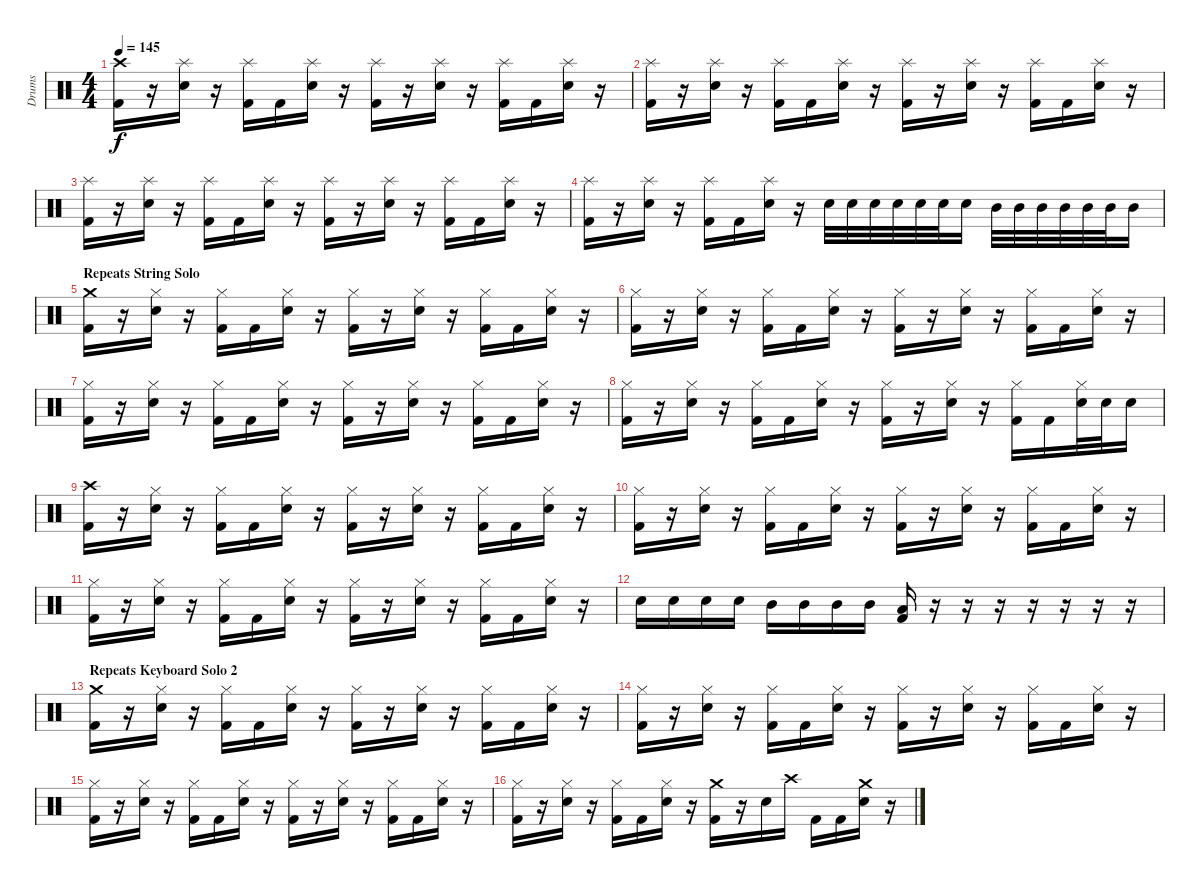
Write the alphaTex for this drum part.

\track ("Drums" "Drums") {instrument percussion}
\staff {score}
\articulation defaults
\ts (4 4)
\tempo 145
\clef neutral
\ks c
("Crash high (hit)" "Kick (hit) 2").16{dy f} r.16 ("Splash (hit)" "Snare (hit) 2").16 r.16 ("Splash (hit)" "Kick (hit) 2").16 "Kick (hit) 2".16 ("Splash (hit)" "Snare (hit) 2").16 r.16 ("Splash (hit)" "Kick (hit) 2").16 r.16 ("Splash (hit)" "Snare (hit) 2").16 r.16 ("Splash (hit)" "Kick (hit) 2").16 "Kick (hit) 2".16 ("Splash (hit)" "Snare (hit) 2").16 r.16 |
("Splash (hit)" "Kick (hit) 2").16 r.16 ("Splash (hit)" "Snare (hit) 2").16 r.16 ("Splash (hit)" "Kick (hit) 2").16 "Kick (hit) 2".16 ("Splash (hit)" "Snare (hit) 2").16 r.16 ("Splash (hit)" "Kick (hit) 2").16 r.16 ("Splash (hit)" "Snare (hit) 2").16 r.16 ("Splash (hit)" "Kick (hit) 2").16 "Kick (hit) 2".16 ("Splash (hit)" "Snare (hit) 2").16 r.16 |
("Splash (hit)" "Kick (hit) 2").16 r.16 ("Splash (hit)" "Snare (hit) 2").16 r.16 ("Splash (hit)" "Kick (hit) 2").16 "Kick (hit) 2".16 ("Splash (hit)" "Snare (hit) 2").16 r.16 ("Splash (hit)" "Kick (hit) 2").16 r.16 ("Splash (hit)" "Snare (hit) 2").16 r.16 ("Splash (hit)" "Kick (hit) 2").16 "Kick (hit) 2".16 ("Splash (hit)" "Snare (hit) 2").16 r.16 |
("Splash (hit)" "Kick (hit) 2").16 r.16 ("Splash (hit)" "Snare (hit) 2").16 r.16 ("Splash (hit)" "Kick (hit) 2").16 "Kick (hit) 2".16 ("Splash (hit)" "Snare (hit) 2").16 r.16 "Snare (hit) 2".32 "Snare (hit) 2".32 "Snare (hit) 2".32 "Snare (hit) 2".32 "Snare (hit) 2".32 "Snare (hit) 2".32 "Snare (hit) 2".16 "Mid Tom (hit)".32 "Mid Tom (hit)".32 "Mid Tom (hit)".32 "Mid Tom (hit)".32 "Mid Tom (hit)".32 "Mid Tom (hit)".32 "Mid Tom (hit)".16 |
\section ("" "Repeats String Solo")
("Crash medium (hit)" "Kick (hit) 2").16 r.16 ("Hi-Hat (closed)" "Snare (hit) 2").16 r.16 ("Hi-Hat (closed)" "Kick (hit) 2").16 "Kick (hit) 2".16 ("Hi-Hat (closed)" "Snare (hit) 2").16 r.16 ("Hi-Hat (closed)" "Kick (hit) 2").16 r.16 ("Hi-Hat (closed)" "Snare (hit) 2").16 r.16 ("Hi-Hat (closed)" "Kick (hit) 2").16 "Kick (hit) 2".16 ("Hi-Hat (closed)" "Snare (hit) 2").16 r.16 |
("Hi-Hat (closed)" "Kick (hit) 2").16 r.16 ("Hi-Hat (closed)" "Snare (hit) 2").16 r.16 ("Hi-Hat (closed)" "Kick (hit) 2").16 "Kick (hit) 2".16 ("Hi-Hat (closed)" "Snare (hit) 2").16 r.16 ("Hi-Hat (closed)" "Kick (hit) 2").16 r.16 ("Hi-Hat (closed)" "Snare (hit) 2").16 r.16 ("Hi-Hat (closed)" "Kick (hit) 2").16 "Kick (hit) 2".16 ("Hi-Hat (closed)" "Snare (hit) 2").16 r.16 |
("Hi-Hat (closed)" "Kick (hit) 2").16 r.16 ("Hi-Hat (closed)" "Snare (hit) 2").16 r.16 ("Hi-Hat (closed)" "Kick (hit) 2").16 "Kick (hit) 2".16 ("Hi-Hat (closed)" "Snare (hit) 2").16 r.16 ("Hi-Hat (closed)" "Kick (hit) 2").16 r.16 ("Hi-Hat (closed)" "Snare (hit) 2").16 r.16 ("Hi-Hat (closed)" "Kick (hit) 2").16 "Kick (hit) 2".16 ("Hi-Hat (closed)" "Snare (hit) 2").16 r.16 |
("Hi-Hat (closed)" "Kick (hit) 2").16 r.16 ("Hi-Hat (closed)" "Snare (hit) 2").16 r.16 ("Hi-Hat (closed)" "Kick (hit) 2").16 "Kick (hit) 2".16 ("Hi-Hat (closed)" "Snare (hit) 2").16 r.16 ("Hi-Hat (closed)" "Kick (hit) 2").16 r.16 ("Hi-Hat (closed)" "Snare (hit) 2").16 r.16 ("Hi-Hat (closed)" "Kick (hit) 2").16 "Kick (hit) 2".16 ("Hi-Hat (closed)" "Snare (hit) 2").32 "Snare (hit) 2".32 "Snare (hit) 2".16 |
("Crash high (hit)" "Kick (hit) 2").16 r.16 ("Hi-Hat (closed)" "Snare (hit) 2").16 r.16 ("Hi-Hat (closed)" "Kick (hit) 2").16 "Kick (hit) 2".16 ("Hi-Hat (closed)" "Snare (hit) 2").16 r.16 ("Hi-Hat (closed)" "Kick (hit) 2").16 r.16 ("Hi-Hat (closed)" "Snare (hit) 2").16 r.16 ("Hi-Hat (closed)" "Kick (hit) 2").16 "Kick (hit) 2".16 ("Hi-Hat (closed)" "Snare (hit) 2").16 r.16 |
("Hi-Hat (closed)" "Kick (hit) 2").16 r.16 ("Hi-Hat (closed)" "Snare (hit) 2").16 r.16 ("Hi-Hat (closed)" "Kick (hit) 2").16 "Kick (hit) 2".16 ("Hi-Hat (closed)" "Snare (hit) 2").16 r.16 ("Hi-Hat (closed)" "Kick (hit) 2").16 r.16 ("Hi-Hat (closed)" "Snare (hit) 2").16 r.16 ("Hi-Hat (closed)" "Kick (hit) 2").16 "Kick (hit) 2".16 ("Hi-Hat (closed)" "Snare (hit) 2").16 r.16 |
("Hi-Hat (closed)" "Kick (hit) 2").16 r.16 ("Hi-Hat (closed)" "Snare (hit) 2").16 r.16 ("Hi-Hat (closed)" "Kick (hit) 2").16 "Kick (hit) 2".16 ("Hi-Hat (closed)" "Snare (hit) 2").16 r.16 ("Hi-Hat (closed)" "Kick (hit) 2").16 r.16 ("Hi-Hat (closed)" "Snare (hit) 2").16 r.16 ("Hi-Hat (closed)" "Kick (hit) 2").16 "Kick (hit) 2".16 ("Hi-Hat (closed)" "Snare (hit) 2").16 r.16 |
"Snare (hit) 2".16 "Snare (hit) 2".16 "Snare (hit) 2".16 "Snare (hit) 2".16 "Mid Tom (hit)".16 "Mid Tom (hit)".16 "Mid Tom (hit)".16 "Mid Tom (hit)".16 ("Low Tom (hit)" "Kick (hit) 2").16 r.16 r.16 r.16 r.16 r.16 r.16 r.16 |
\section ("" "Repeats Keyboard Solo 2")
("Crash medium (hit)" "Kick (hit) 2").16 r.16 ("Hi-Hat (closed)" "Snare (hit) 2").16 r.16 ("Hi-Hat (closed)" "Kick (hit) 2").16 "Kick (hit) 2".16 ("Hi-Hat (closed)" "Snare (hit) 2").16 r.16 ("Hi-Hat (closed)" "Kick (hit) 2").16 r.16 ("Hi-Hat (closed)" "Snare (hit) 2").16 r.16 ("Hi-Hat (closed)" "Kick (hit) 2").16 "Kick (hit) 2".16 ("Hi-Hat (closed)" "Snare (hit) 2").16 r.16 |
("Hi-Hat (closed)" "Kick (hit) 2").16 r.16 ("Hi-Hat (closed)" "Snare (hit) 2").16 r.16 ("Hi-Hat (closed)" "Kick (hit) 2").16 "Kick (hit) 2".16 ("Hi-Hat (closed)" "Snare (hit) 2").16 r.16 ("Hi-Hat (closed)" "Kick (hit) 2").16 r.16 ("Hi-Hat (closed)" "Snare (hit) 2").16 r.16 ("Hi-Hat (closed)" "Kick (hit) 2").16 "Kick (hit) 2".16 ("Hi-Hat (closed)" "Snare (hit) 2").16 r.16 |
("Hi-Hat (closed)" "Kick (hit) 2").16 r.16 ("Hi-Hat (closed)" "Snare (hit) 2").16 r.16 ("Hi-Hat (closed)" "Kick (hit) 2").16 "Kick (hit) 2".16 ("Hi-Hat (closed)" "Snare (hit) 2").16 r.16 ("Hi-Hat (closed)" "Kick (hit) 2").16 r.16 ("Hi-Hat (closed)" "Snare (hit) 2").16 r.16 ("Hi-Hat (closed)" "Kick (hit) 2").16 "Kick (hit) 2".16 ("Hi-Hat (closed)" "Snare (hit) 2").16 r.16 |
("Hi-Hat (closed)" "Kick (hit) 2").16 r.16 ("Hi-Hat (closed)" "Snare (hit) 2").16 r.16 ("Hi-Hat (closed)" "Kick (hit) 2").16 "Kick (hit) 2".16 ("Hi-Hat (closed)" "Snare (hit) 2").16 r.16 ("Crash medium (hit)" "Kick (hit) 2").16 r.16 "Snare (hit) 2".16 "Crash high (hit)".16 "Kick (hit) 2".16 "Kick (hit) 2".16 ("Crash medium (hit)" "Snare (hit) 2").16 r.16
